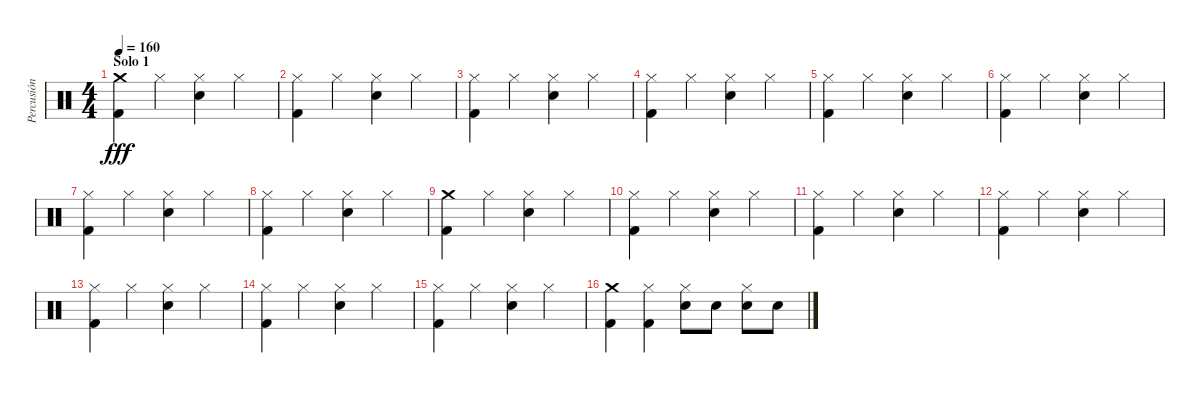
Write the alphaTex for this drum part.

\track ("Percusión" "Percusión") {instrument percussion}
\staff {score}
\articulation defaults
\ts (4 4)
\section ("" "Solo 1")
\tempo 160
\clef neutral
\ks c
("Crash medium (hit)" "Kick (hit) 2").4{dy fff} "Hi-Hat (closed)".4 ("Hi-Hat (closed)" "Snare (hit) 2").4 "Hi-Hat (closed)".4 |
("Hi-Hat (closed)" "Kick (hit) 2").4 "Hi-Hat (closed)".4 ("Hi-Hat (closed)" "Snare (hit) 2").4 "Hi-Hat (closed)".4 |
("Hi-Hat (closed)" "Kick (hit) 2").4 "Hi-Hat (closed)".4 ("Hi-Hat (closed)" "Snare (hit) 2").4 "Hi-Hat (closed)".4 |
("Hi-Hat (closed)" "Kick (hit) 2").4 "Hi-Hat (closed)".4 ("Hi-Hat (closed)" "Snare (hit) 2").4 "Hi-Hat (closed)".4 |
("Hi-Hat (closed)" "Kick (hit) 2").4 "Hi-Hat (closed)".4 ("Hi-Hat (closed)" "Snare (hit) 2").4 "Hi-Hat (closed)".4 |
("Hi-Hat (closed)" "Kick (hit) 2").4 "Hi-Hat (closed)".4 ("Hi-Hat (closed)" "Snare (hit) 2").4 "Hi-Hat (closed)".4 |
("Hi-Hat (closed)" "Kick (hit) 2").4 "Hi-Hat (closed)".4 ("Hi-Hat (closed)" "Snare (hit) 2").4 "Hi-Hat (closed)".4 |
("Hi-Hat (closed)" "Kick (hit) 2").4 "Hi-Hat (closed)".4 ("Hi-Hat (closed)" "Snare (hit) 2").4 "Hi-Hat (closed)".4 |
("Crash medium (hit)" "Kick (hit) 2").4 "Hi-Hat (closed)".4 ("Hi-Hat (closed)" "Snare (hit) 2").4 "Hi-Hat (closed)".4 |
("Hi-Hat (closed)" "Kick (hit) 2").4 "Hi-Hat (closed)".4 ("Hi-Hat (closed)" "Snare (hit) 2").4 "Hi-Hat (closed)".4 |
("Hi-Hat (closed)" "Kick (hit) 2").4 "Hi-Hat (closed)".4 ("Hi-Hat (closed)" "Snare (hit) 2").4 "Hi-Hat (closed)".4 |
("Hi-Hat (closed)" "Kick (hit) 2").4 "Hi-Hat (closed)".4 ("Hi-Hat (closed)" "Snare (hit) 2").4 "Hi-Hat (closed)".4 |
("Hi-Hat (closed)" "Kick (hit) 2").4 "Hi-Hat (closed)".4 ("Hi-Hat (closed)" "Snare (hit) 2").4 "Hi-Hat (closed)".4 |
("Hi-Hat (closed)" "Kick (hit) 2").4 "Hi-Hat (closed)".4 ("Hi-Hat (closed)" "Snare (hit) 2").4 "Hi-Hat (closed)".4 |
("Hi-Hat (closed)" "Kick (hit) 2").4 "Hi-Hat (closed)".4 ("Hi-Hat (closed)" "Snare (hit) 2").4 "Hi-Hat (closed)".4 |
("Crash medium (hit)" "Kick (hit) 2").4 ("Hi-Hat (closed)" "Kick (hit) 2").4 ("Hi-Hat (closed)" "Snare (hit) 2").8 "Snare (hit) 2".8 ("Hi-Hat (closed)" "Snare (hit) 2").8 "Snare (hit) 2".8
